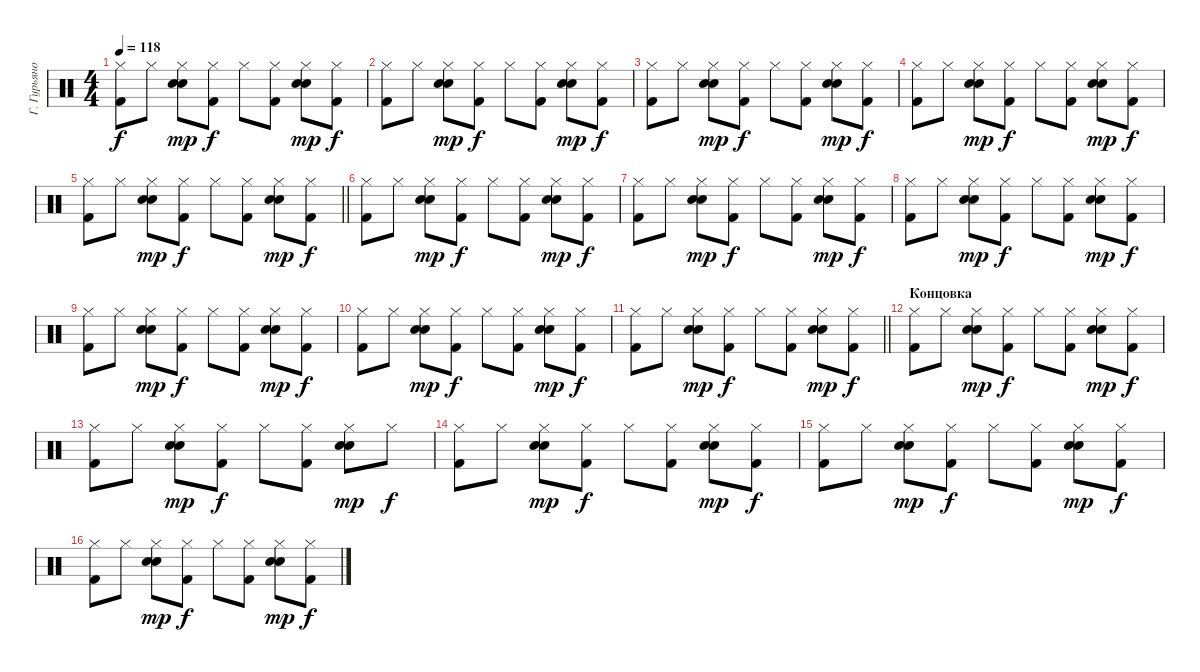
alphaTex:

\track ("Г. Гурьянов" "Г. Гурьяно") {instrument percussion}
\staff
\articulation defaults
\ts (4 4)
\tempo 118
\clef neutral
\ks c
("Hi-Hat (closed)" "Kick (hit) 2").8{dy f} "Hi-Hat (closed)".8 ("Hi-Hat (closed)" "Electric Snare (hit)" "Snare (hit) 2").8{dy mp} ("Hi-Hat (closed)" "Kick (hit) 2").8{dy f} "Hi-Hat (closed)".8 ("Hi-Hat (closed)" "Kick (hit) 2").8 ("Hi-Hat (closed)" "Electric Snare (hit)" "Snare (hit) 2").8{dy mp} ("Hi-Hat (closed)" "Kick (hit) 2").8{dy f} |
("Hi-Hat (closed)" "Kick (hit) 2").8 "Hi-Hat (closed)".8 ("Hi-Hat (closed)" "Electric Snare (hit)" "Snare (hit) 2").8{dy mp} ("Hi-Hat (closed)" "Kick (hit) 2").8{dy f} "Hi-Hat (closed)".8 ("Hi-Hat (closed)" "Kick (hit) 2").8 ("Hi-Hat (closed)" "Electric Snare (hit)" "Snare (hit) 2").8{dy mp} ("Hi-Hat (closed)" "Kick (hit) 2").8{dy f} |
("Hi-Hat (closed)" "Kick (hit) 2").8 "Hi-Hat (closed)".8 ("Hi-Hat (closed)" "Electric Snare (hit)" "Snare (hit) 2").8{dy mp} ("Hi-Hat (closed)" "Kick (hit) 2").8{dy f} "Hi-Hat (closed)".8 ("Hi-Hat (closed)" "Kick (hit) 2").8 ("Hi-Hat (closed)" "Electric Snare (hit)" "Snare (hit) 2").8{dy mp} ("Hi-Hat (closed)" "Kick (hit) 2").8{dy f} |
("Hi-Hat (closed)" "Kick (hit) 2").8 "Hi-Hat (closed)".8 ("Hi-Hat (closed)" "Electric Snare (hit)" "Snare (hit) 2").8{dy mp} ("Hi-Hat (closed)" "Kick (hit) 2").8{dy f} "Hi-Hat (closed)".8 ("Hi-Hat (closed)" "Kick (hit) 2").8 ("Hi-Hat (closed)" "Electric Snare (hit)" "Snare (hit) 2").8{dy mp} ("Hi-Hat (closed)" "Kick (hit) 2").8{dy f} |
\barLineRight lightlight
("Hi-Hat (closed)" "Kick (hit) 2").8 "Hi-Hat (closed)".8 ("Hi-Hat (closed)" "Electric Snare (hit)" "Snare (hit) 2").8{dy mp} ("Hi-Hat (closed)" "Kick (hit) 2").8{dy f} "Hi-Hat (closed)".8 ("Hi-Hat (closed)" "Kick (hit) 2").8 ("Hi-Hat (closed)" "Electric Snare (hit)" "Snare (hit) 2").8{dy mp} ("Hi-Hat (closed)" "Kick (hit) 2").8{dy f} |
("Hi-Hat (closed)" "Kick (hit) 2").8 "Hi-Hat (closed)".8 ("Hi-Hat (closed)" "Electric Snare (hit)" "Snare (hit) 2").8{dy mp} ("Hi-Hat (closed)" "Kick (hit) 2").8{dy f} "Hi-Hat (closed)".8 ("Hi-Hat (closed)" "Kick (hit) 2").8 ("Hi-Hat (closed)" "Electric Snare (hit)" "Snare (hit) 2").8{dy mp} ("Hi-Hat (closed)" "Kick (hit) 2").8{dy f} |
("Hi-Hat (closed)" "Kick (hit) 2").8 "Hi-Hat (closed)".8 ("Hi-Hat (closed)" "Electric Snare (hit)" "Snare (hit) 2").8{dy mp} ("Hi-Hat (closed)" "Kick (hit) 2").8{dy f} "Hi-Hat (closed)".8 ("Hi-Hat (closed)" "Kick (hit) 2").8 ("Hi-Hat (closed)" "Electric Snare (hit)" "Snare (hit) 2").8{dy mp} ("Hi-Hat (closed)" "Kick (hit) 2").8{dy f} |
("Hi-Hat (closed)" "Kick (hit) 2").8 "Hi-Hat (closed)".8 ("Hi-Hat (closed)" "Electric Snare (hit)" "Snare (hit) 2").8{dy mp} ("Hi-Hat (closed)" "Kick (hit) 2").8{dy f} "Hi-Hat (closed)".8 ("Hi-Hat (closed)" "Kick (hit) 2").8 ("Hi-Hat (closed)" "Electric Snare (hit)" "Snare (hit) 2").8{dy mp} ("Hi-Hat (closed)" "Kick (hit) 2").8{dy f} |
("Hi-Hat (closed)" "Kick (hit) 2").8 "Hi-Hat (closed)".8 ("Hi-Hat (closed)" "Electric Snare (hit)" "Snare (hit) 2").8{dy mp} ("Hi-Hat (closed)" "Kick (hit) 2").8{dy f} "Hi-Hat (closed)".8 ("Hi-Hat (closed)" "Kick (hit) 2").8 ("Hi-Hat (closed)" "Electric Snare (hit)" "Snare (hit) 2").8{dy mp} ("Hi-Hat (closed)" "Kick (hit) 2").8{dy f} |
("Hi-Hat (closed)" "Kick (hit) 2").8 "Hi-Hat (closed)".8 ("Hi-Hat (closed)" "Electric Snare (hit)" "Snare (hit) 2").8{dy mp} ("Hi-Hat (closed)" "Kick (hit) 2").8{dy f} "Hi-Hat (closed)".8 ("Hi-Hat (closed)" "Kick (hit) 2").8 ("Hi-Hat (closed)" "Electric Snare (hit)" "Snare (hit) 2").8{dy mp} ("Hi-Hat (closed)" "Kick (hit) 2").8{dy f} |
\barLineRight lightlight
("Hi-Hat (closed)" "Kick (hit) 2").8 "Hi-Hat (closed)".8 ("Hi-Hat (closed)" "Electric Snare (hit)" "Snare (hit) 2").8{dy mp} ("Hi-Hat (closed)" "Kick (hit) 2").8{dy f} "Hi-Hat (closed)".8 ("Hi-Hat (closed)" "Kick (hit) 2").8 ("Hi-Hat (closed)" "Electric Snare (hit)" "Snare (hit) 2").8{dy mp} ("Hi-Hat (closed)" "Kick (hit) 2").8{dy f} |
\section ("" "Концовка")
("Hi-Hat (closed)" "Kick (hit) 2").8 "Hi-Hat (closed)".8 ("Hi-Hat (closed)" "Electric Snare (hit)" "Snare (hit) 2").8{dy mp} ("Hi-Hat (closed)" "Kick (hit) 2").8{dy f} "Hi-Hat (closed)".8 ("Hi-Hat (closed)" "Kick (hit) 2").8 ("Hi-Hat (closed)" "Electric Snare (hit)" "Snare (hit) 2").8{dy mp} ("Hi-Hat (closed)" "Kick (hit) 2").8{dy f} |
("Hi-Hat (closed)" "Kick (hit) 2").8 "Hi-Hat (closed)".8 ("Hi-Hat (closed)" "Electric Snare (hit)" "Snare (hit) 2").8{dy mp} ("Hi-Hat (closed)" "Kick (hit) 2").8{dy f} "Hi-Hat (closed)".8 ("Hi-Hat (closed)" "Kick (hit) 2").8 ("Hi-Hat (closed)" "Electric Snare (hit)" "Snare (hit) 2").8{dy mp} "Hi-Hat (closed)".8{dy f} |
("Hi-Hat (closed)" "Kick (hit) 2").8 "Hi-Hat (closed)".8 ("Hi-Hat (closed)" "Electric Snare (hit)" "Snare (hit) 2").8{dy mp} ("Hi-Hat (closed)" "Kick (hit) 2").8{dy f} "Hi-Hat (closed)".8 ("Hi-Hat (closed)" "Kick (hit) 2").8 ("Hi-Hat (closed)" "Electric Snare (hit)" "Snare (hit) 2").8{dy mp} ("Hi-Hat (closed)" "Kick (hit) 2").8{dy f} |
("Hi-Hat (closed)" "Kick (hit) 2").8 "Hi-Hat (closed)".8 ("Hi-Hat (closed)" "Electric Snare (hit)" "Snare (hit) 2").8{dy mp} ("Hi-Hat (closed)" "Kick (hit) 2").8{dy f} "Hi-Hat (closed)".8 ("Hi-Hat (closed)" "Kick (hit) 2").8 ("Hi-Hat (closed)" "Electric Snare (hit)" "Snare (hit) 2").8{dy mp} ("Hi-Hat (closed)" "Kick (hit) 2").8{dy f} |
("Hi-Hat (closed)" "Kick (hit) 2").8 "Hi-Hat (closed)".8 ("Hi-Hat (closed)" "Electric Snare (hit)" "Snare (hit) 2").8{dy mp} ("Hi-Hat (closed)" "Kick (hit) 2").8{dy f} "Hi-Hat (closed)".8 ("Hi-Hat (closed)" "Kick (hit) 2").8 ("Hi-Hat (closed)" "Electric Snare (hit)" "Snare (hit) 2").8{dy mp} ("Hi-Hat (closed)" "Kick (hit) 2").8{dy f}
